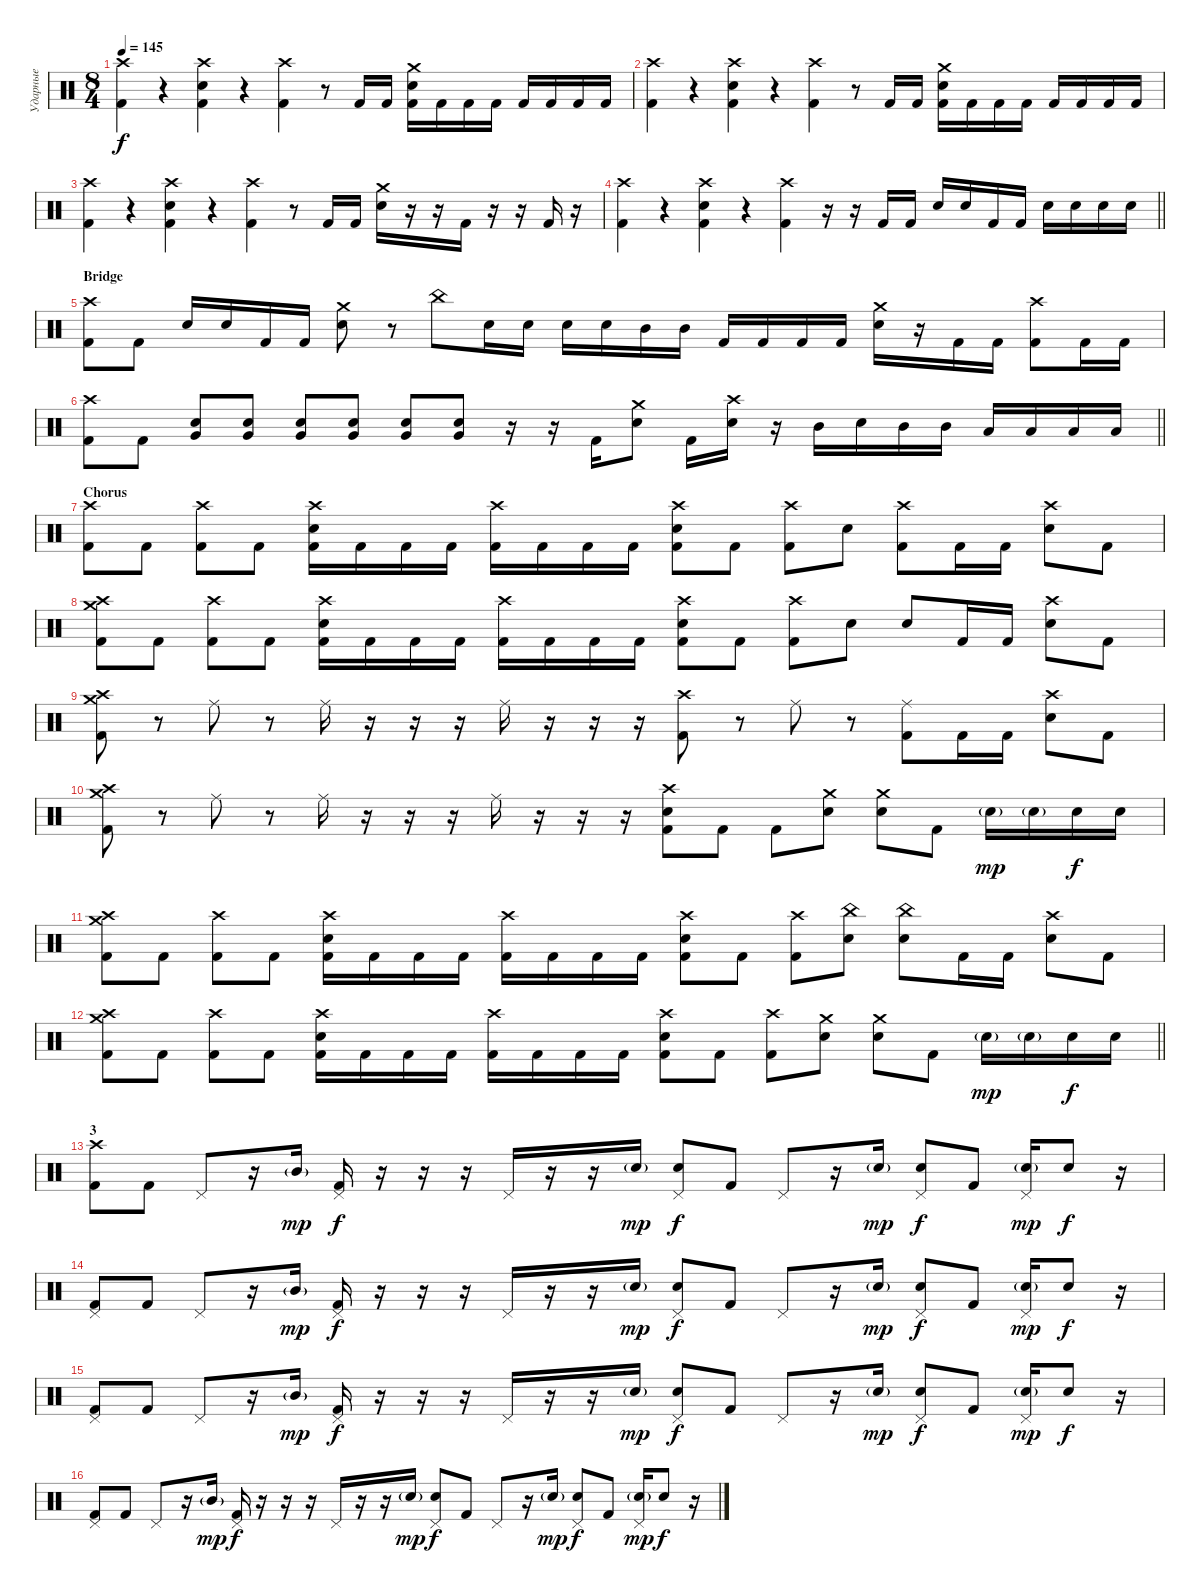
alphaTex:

\track ("Ударные" "Ударные") {instrument percussion}
\staff {score}
\articulation defaults
\ts (8 4)
\tempo 145
\clef neutral
\ks c
("Crash high (hit)" "Kick (hit) 2").4{dy f} r.4{volume 0} ("Crash high (hit)" "Electric Snare (hit)" "Kick (hit) 2").4{volume 16} r.4{volume 0} ("Crash high (hit)" "Kick (hit) 2").4{volume 16} r.8{volume 0} "Kick (hit) 2".16{volume 16} "Kick (hit) 2".16 ("Crash medium (hit)" "Electric Snare (hit)" "Kick (hit) 2").16 "Kick (hit) 2".16 "Kick (hit) 2".16 "Kick (hit) 2".16 "Kick (hit) 2".16 "Kick (hit) 2".16 "Kick (hit) 2".16 "Kick (hit) 2".16 |
("Crash high (hit)" "Kick (hit) 2").4 r.4{volume 0} ("Crash high (hit)" "Electric Snare (hit)" "Kick (hit) 2").4{volume 16} r.4{volume 0} ("Crash high (hit)" "Kick (hit) 2").4{volume 16} r.8{volume 0} "Kick (hit) 2".16{volume 16} "Kick (hit) 2".16 ("Crash medium (hit)" "Electric Snare (hit)" "Kick (hit) 2").16 "Kick (hit) 2".16 "Kick (hit) 2".16 "Kick (hit) 2".16 "Kick (hit) 2".16 "Kick (hit) 2".16 "Kick (hit) 2".16 "Kick (hit) 2".16 |
("Crash high (hit)" "Kick (hit) 2").4 r.4{volume 0} ("Crash high (hit)" "Electric Snare (hit)" "Kick (hit) 2").4{volume 16} r.4{volume 0} ("Crash high (hit)" "Kick (hit) 2").4{volume 16} r.8{volume 0} "Kick (hit) 2".16{volume 16} "Kick (hit) 2".16 ("Crash medium (hit)" "Electric Snare (hit)").16 r.16 r.16 "Kick (hit) 2".16 r.16 r.16 "Kick (hit) 2".16 r.16 |
\barLineRight lightlight
("Crash high (hit)" "Kick (hit) 2").4 r.4{volume 0} ("Crash high (hit)" "Electric Snare (hit)" "Kick (hit) 2").4{volume 16} r.4{volume 0} ("Crash high (hit)" "Kick (hit) 2").4{volume 16} r.16 r.16 "Kick (hit) 2".16 "Kick (hit) 2".16 "Electric Snare (hit)".16 "Electric Snare (hit)".16 "Kick (hit) 2".16 "Kick (hit) 2".16 "Electric Snare (hit)".16 "Electric Snare (hit)".16 "Electric Snare (hit)".16 "Electric Snare (hit)".16 |
\section ("" "Bridge")
("Crash high (hit)" "Kick (hit) 2").8 "Kick (hit) 2".8 "Electric Snare (hit)".16 "Electric Snare (hit)".16 "Kick (hit) 2".16 "Kick (hit) 2".16 ("Crash medium (hit)" "Electric Snare (hit)").8 r.8 "China (hit)".8 "Electric Snare (hit)".16 "Electric Snare (hit)".16 "Electric Snare (hit)".16 "Electric Snare (hit)".16 "Mid Tom (hit)".16 "Mid Tom (hit)".16 "Kick (hit) 2".16 "Kick (hit) 2".16 "Kick (hit) 2".16 "Kick (hit) 2".16 ("Crash medium (hit)" "Electric Snare (hit)").16 r.16 "Kick (hit) 2".16 "Kick (hit) 2".16 ("Crash high (hit)" "Kick (hit) 2").8 "Kick (hit) 2".16 "Kick (hit) 2".16 |
\barLineRight lightlight
("Crash high (hit)" "Kick (hit) 2").8 "Kick (hit) 2".8 ("Very Low Tom (hit)" "Electric Snare (hit)").8 ("Very Low Tom (hit)" "Electric Snare (hit)").8 ("Very Low Tom (hit)" "Electric Snare (hit)").8 ("Very Low Tom (hit)" "Electric Snare (hit)").8 ("Very Low Tom (hit)" "Electric Snare (hit)").8 ("Very Low Tom (hit)" "Electric Snare (hit)").8 r.16 r.16 "Kick (hit) 2".16 ("Crash medium (hit)" "Electric Snare (hit)").8 "Kick (hit) 2".16 ("Crash high (hit)" "Electric Snare (hit)").16 r.16 "Mid Tom (hit)".16 "Electric Snare (hit)".16 "Mid Tom (hit)".16 "Mid Tom (hit)".16 "Low Tom (hit)".16 "Low Tom (hit)".16 "Low Tom (hit)".16 "Low Tom (hit)".16 |
\section ("" "Chorus")
("Crash high (hit)" "Kick (hit) 2").8 "Kick (hit) 2".8 ("Crash high (hit)" "Kick (hit) 2").8 "Kick (hit) 2".8 ("Crash high (hit)" "Electric Snare (hit)" "Kick (hit) 2").16 "Kick (hit) 2".16 "Kick (hit) 2".16 "Kick (hit) 2".16 ("Crash high (hit)" "Kick (hit) 2").16 "Kick (hit) 2".16 "Kick (hit) 2".16 "Kick (hit) 2".16 ("Crash high (hit)" "Electric Snare (hit)" "Kick (hit) 2").8 "Kick (hit) 2".8 ("Crash high (hit)" "Kick (hit) 2").8 "Electric Snare (hit)".8 ("Crash high (hit)" "Kick (hit) 2").8 "Kick (hit) 2".16 "Kick (hit) 2".16 ("Crash high (hit)" "Electric Snare (hit)").8 "Kick (hit) 2".8 |
("Crash high (hit)" "Crash medium (hit)" "Kick (hit) 2").8 "Kick (hit) 2".8 ("Crash high (hit)" "Kick (hit) 2").8 "Kick (hit) 2".8 ("Crash high (hit)" "Electric Snare (hit)" "Kick (hit) 2").16 "Kick (hit) 2".16 "Kick (hit) 2".16 "Kick (hit) 2".16 ("Crash high (hit)" "Kick (hit) 2").16 "Kick (hit) 2".16 "Kick (hit) 2".16 "Kick (hit) 2".16 ("Crash high (hit)" "Electric Snare (hit)" "Kick (hit) 2").8 "Kick (hit) 2".8 ("Crash high (hit)" "Kick (hit) 2").8 "Electric Snare (hit)".8 "Electric Snare (hit)".8 "Kick (hit) 2".16 "Kick (hit) 2".16 ("Crash high (hit)" "Electric Snare (hit)").8 "Kick (hit) 2".8 |
("Crash high (hit)" "Crash medium (hit)" "Kick (hit) 2").8 r.8 "Ride (middle)".8 r.8 "Ride (middle)".16 r.16 r.16 r.16 "Ride (middle)".16 r.16 r.16 r.16 ("Crash high (hit)" "Kick (hit) 2").8 r.8 "Ride (middle)".8 r.8 ("Ride (middle)" "Kick (hit) 2").8 "Kick (hit) 2".16 "Kick (hit) 2".16 ("Crash high (hit)" "Electric Snare (hit)").8 "Kick (hit) 2".8 |
("Crash high (hit)" "Crash medium (hit)" "Kick (hit) 2").8 r.8 "Ride (middle)".8 r.8 "Ride (middle)".16 r.16 r.16 r.16 "Ride (middle)".16 r.16 r.16 r.16 ("Crash high (hit)" "Electric Snare (hit)" "Kick (hit) 2").8 "Kick (hit) 2".8 "Kick (hit) 2".8 ("Crash medium (hit)" "Electric Snare (hit)").8 ("Crash medium (hit)" "Electric Snare (hit)").8 "Kick (hit) 2".8 "Electric Snare (hit)"{g}.16{dy mp} "Electric Snare (hit)"{g}.16 "Electric Snare (hit)".16{dy f} "Electric Snare (hit)".16 |
("Crash high (hit)" "Crash medium (hit)" "Kick (hit) 2").8 "Kick (hit) 2".8 ("Crash high (hit)" "Kick (hit) 2").8 "Kick (hit) 2".8 ("Crash high (hit)" "Electric Snare (hit)" "Kick (hit) 2").16 "Kick (hit) 2".16 "Kick (hit) 2".16 "Kick (hit) 2".16 ("Crash high (hit)" "Kick (hit) 2").16 "Kick (hit) 2".16 "Kick (hit) 2".16 "Kick (hit) 2".16 ("Crash high (hit)" "Electric Snare (hit)" "Kick (hit) 2").8 "Kick (hit) 2".8 ("Crash high (hit)" "Kick (hit) 2").8 ("China (hit)" "Electric Snare (hit)").8 ("China (hit)" "Electric Snare (hit)").8 "Kick (hit) 2".16 "Kick (hit) 2".16 ("Crash high (hit)" "Electric Snare (hit)").8 "Kick (hit) 2".8 |
\barLineRight lightlight
("Crash high (hit)" "Crash medium (hit)" "Kick (hit) 2").8 "Kick (hit) 2".8 ("Crash high (hit)" "Kick (hit) 2").8 "Kick (hit) 2".8 ("Crash high (hit)" "Electric Snare (hit)" "Kick (hit) 2").16 "Kick (hit) 2".16 "Kick (hit) 2".16 "Kick (hit) 2".16 ("Crash high (hit)" "Kick (hit) 2").16 "Kick (hit) 2".16 "Kick (hit) 2".16 "Kick (hit) 2".16 ("Crash high (hit)" "Electric Snare (hit)" "Kick (hit) 2").8 "Kick (hit) 2".8 ("Crash high (hit)" "Kick (hit) 2").8 ("Crash medium (hit)" "Electric Snare (hit)").8 ("Crash medium (hit)" "Electric Snare (hit)").8 "Kick (hit) 2".8 "Electric Snare (hit)"{g}.16{dy mp} "Electric Snare (hit)"{g}.16 "Electric Snare (hit)".16{dy f} "Electric Snare (hit)".16 |
\section ("" "3")
("Crash high (hit)" "Kick (hit) 2").8 "Kick (hit) 2".8 "Pedal Hi-Hat (hit)".8 r.16 "Mid Tom (hit)"{g}.16{dy mp} ("Pedal Hi-Hat (hit)" "Kick (hit) 2").16{dy f} r.16 r.16 r.16 "Pedal Hi-Hat (hit)".16 r.16 r.16 "Electric Snare (hit)"{g}.16{dy mp} ("Pedal Hi-Hat (hit)" "Electric Snare (hit)").8{dy f} "Kick (hit) 2".8 "Pedal Hi-Hat (hit)".8 r.16 "Electric Snare (hit)"{g}.16{dy mp} ("Pedal Hi-Hat (hit)" "Electric Snare (hit)").8{dy f} "Kick (hit) 2".8 ("Pedal Hi-Hat (hit)" "Electric Snare (hit)"{g}).16{dy mp} "Electric Snare (hit)".8{dy f} r.16 |
("Pedal Hi-Hat (hit)" "Kick (hit) 2").8 "Kick (hit) 2".8 "Pedal Hi-Hat (hit)".8 r.16 "Mid Tom (hit)"{g}.16{dy mp} ("Pedal Hi-Hat (hit)" "Kick (hit) 2").16{dy f} r.16 r.16 r.16 "Pedal Hi-Hat (hit)".16 r.16 r.16 "Electric Snare (hit)"{g}.16{dy mp} ("Pedal Hi-Hat (hit)" "Electric Snare (hit)").8{dy f} "Kick (hit) 2".8 "Pedal Hi-Hat (hit)".8 r.16 "Electric Snare (hit)"{g}.16{dy mp} ("Pedal Hi-Hat (hit)" "Electric Snare (hit)").8{dy f} "Kick (hit) 2".8 ("Pedal Hi-Hat (hit)" "Electric Snare (hit)"{g}).16{dy mp} "Electric Snare (hit)".8{dy f} r.16 |
("Pedal Hi-Hat (hit)" "Kick (hit) 2").8 "Kick (hit) 2".8 "Pedal Hi-Hat (hit)".8 r.16 "Mid Tom (hit)"{g}.16{dy mp} ("Pedal Hi-Hat (hit)" "Kick (hit) 2").16{dy f} r.16 r.16 r.16 "Pedal Hi-Hat (hit)".16 r.16 r.16 "Electric Snare (hit)"{g}.16{dy mp} ("Pedal Hi-Hat (hit)" "Electric Snare (hit)").8{dy f} "Kick (hit) 2".8 "Pedal Hi-Hat (hit)".8 r.16 "Electric Snare (hit)"{g}.16{dy mp} ("Pedal Hi-Hat (hit)" "Electric Snare (hit)").8{dy f} "Kick (hit) 2".8 ("Pedal Hi-Hat (hit)" "Electric Snare (hit)"{g}).16{dy mp} "Electric Snare (hit)".8{dy f} r.16 |
("Pedal Hi-Hat (hit)" "Kick (hit) 2").8 "Kick (hit) 2".8 "Pedal Hi-Hat (hit)".8 r.16 "Mid Tom (hit)"{g}.16{dy mp} ("Pedal Hi-Hat (hit)" "Kick (hit) 2").16{dy f} r.16 r.16 r.16 "Pedal Hi-Hat (hit)".16 r.16 r.16 "Electric Snare (hit)"{g}.16{dy mp} ("Pedal Hi-Hat (hit)" "Electric Snare (hit)").8{dy f} "Kick (hit) 2".8 "Pedal Hi-Hat (hit)".8 r.16 "Electric Snare (hit)"{g}.16{dy mp} ("Pedal Hi-Hat (hit)" "Electric Snare (hit)").8{dy f} "Kick (hit) 2".8 ("Pedal Hi-Hat (hit)" "Electric Snare (hit)"{g}).16{dy mp} "Electric Snare (hit)".8{dy f} r.16
